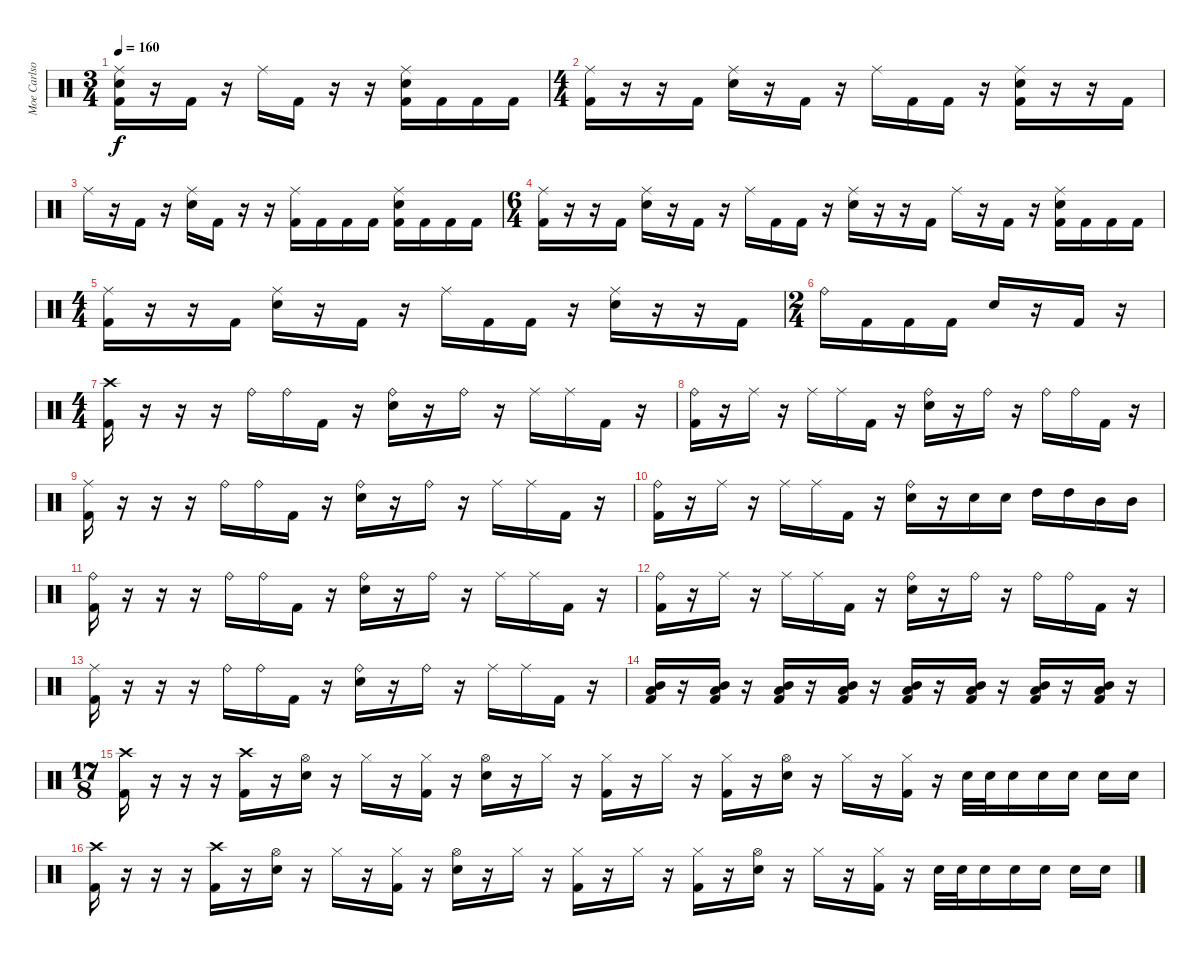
\track ("Moe Carlson" "Moe Carlso") {instrument percussion}
\staff {score}
\articulation defaults
\ts (3 4)
\tempo 160
\clef neutral
\ks c
("Ride (middle)" "Electric Snare (hit)" "Kick (hit) 2").16{dy f} r.16 "Kick (hit) 2".16 r.16 "Ride (middle)".16 "Kick (hit) 2".16 r.16 r.16 ("Ride (middle)" "Electric Snare (hit)" "Kick (hit) 2").16 "Kick (hit) 2".16 "Kick (hit) 2".16 "Kick (hit) 2".16 |
\ts (4 4)
("Ride (middle)" "Kick (hit) 2").16 r.16 r.16 "Kick (hit) 2".16 ("Ride (middle)" "Electric Snare (hit)").16 r.16 "Kick (hit) 2".16 r.16 "Ride (middle)".16 "Kick (hit) 2".16 "Kick (hit) 2".16 r.16 ("Ride (middle)" "Electric Snare (hit)" "Kick (hit) 2").16 r.16 r.16 "Kick (hit) 2".16 |
"Ride (middle)".16 r.16 "Kick (hit) 2".16 r.16 ("Ride (middle)" "Electric Snare (hit)").16 "Kick (hit) 2".16 r.16 r.16 ("Ride (middle)" "Kick (hit) 2").16 "Kick (hit) 2".16 "Kick (hit) 2".16 "Kick (hit) 2".16 ("Ride (middle)" "Electric Snare (hit)" "Kick (hit) 2").16 "Kick (hit) 2".16 "Kick (hit) 2".16 "Kick (hit) 2".16 |
\ts (6 4)
("Ride (middle)" "Kick (hit) 2").16 r.16 r.16 "Kick (hit) 2".16 ("Ride (middle)" "Electric Snare (hit)").16 r.16 "Kick (hit) 2".16 r.16 "Ride (middle)".16 "Kick (hit) 2".16 "Kick (hit) 2".16 r.16 ("Ride (middle)" "Electric Snare (hit)").16 r.16 r.16 "Kick (hit) 2".16 "Ride (middle)".16 r.16 "Kick (hit) 2".16 r.16 ("Ride (middle)" "Electric Snare (hit)" "Kick (hit) 2").16 "Kick (hit) 2".16 "Kick (hit) 2".16 "Kick (hit) 2".16 |
\ts (4 4)
("Ride (middle)" "Kick (hit) 2").16 r.16 r.16 "Kick (hit) 2".16 ("Ride (middle)" "Electric Snare (hit)").16 r.16 "Kick (hit) 2".16 r.16 "Ride (middle)".16 "Kick (hit) 2".16 "Kick (hit) 2".16 r.16 ("Ride (middle)" "Electric Snare (hit)").16 r.16 r.16 "Kick (hit) 2".16 |
\ts (2 4)
"Ride (bell)".16 "Kick (hit) 2".16 "Kick (hit) 2".16 "Kick (hit) 2".16 "Electric Snare (hit)".16 r.16 "Kick (hit) 2".16 r.16 |
\ts (4 4)
("Crash high (hit)" "Kick (hit) 2").16 r.16 r.16 r.16 "Ride (bell)".16 "Ride (bell)".16 "Kick (hit) 2".16 r.16 ("Ride (bell)" "Electric Snare (hit)").16 r.16 "Ride (bell)".16 r.16 "Ride (middle)".16 "Ride (middle)".16 "Kick (hit) 2".16 r.16 |
("Ride (bell)" "Kick (hit) 2").16 r.16 "Ride (middle)".16 r.16 "Ride (middle)".16 "Ride (middle)".16 "Kick (hit) 2".16 r.16 ("Ride (bell)" "Electric Snare (hit)").16 r.16 "Ride (bell)".16 r.16 "Ride (bell)".16 "Ride (bell)".16 "Kick (hit) 2".16 r.16 |
("Ride (middle)" "Kick (hit) 2").16 r.16 r.16 r.16 "Ride (bell)".16 "Ride (bell)".16 "Kick (hit) 2".16 r.16 ("Ride (bell)" "Electric Snare (hit)").16 r.16 "Ride (bell)".16 r.16 "Ride (middle)".16 "Ride (middle)".16 "Kick (hit) 2".16 r.16 |
("Ride (bell)" "Kick (hit) 2").16 r.16 "Ride (middle)".16 r.16 "Ride (middle)".16 "Ride (middle)".16 "Kick (hit) 2".16 r.16 ("Ride (bell)" "Electric Snare (hit)").16 r.16 "Electric Snare (hit)".16 "Electric Snare (hit)".16 "High Tom (hit)".16 "High Tom (hit)".16 "Mid Tom (hit)".16 "Mid Tom (hit)".16 |
("Ride (bell)" "Kick (hit) 2").16 r.16 r.16 r.16 "Ride (bell)".16 "Ride (bell)".16 "Kick (hit) 2".16 r.16 ("Ride (bell)" "Electric Snare (hit)").16 r.16 "Ride (bell)".16 r.16 "Ride (middle)".16 "Ride (middle)".16 "Kick (hit) 2".16 r.16 |
("Ride (bell)" "Kick (hit) 2").16 r.16 "Ride (middle)".16 r.16 "Ride (middle)".16 "Ride (middle)".16 "Kick (hit) 2".16 r.16 ("Ride (bell)" "Electric Snare (hit)").16 r.16 "Ride (bell)".16 r.16 "Ride (bell)".16 "Ride (bell)".16 "Kick (hit) 2".16 r.16 |
("Ride (middle)" "Kick (hit) 2").16 r.16 r.16 r.16 "Ride (bell)".16 "Ride (bell)".16 "Kick (hit) 2".16 r.16 ("Ride (bell)" "Electric Snare (hit)").16 r.16 "Ride (bell)".16 r.16 "Ride (middle)".16 "Ride (middle)".16 "Kick (hit) 2".16 r.16 |
("Mid Tom (hit)" "Low Tom (hit)" "Kick (hit) 2").16 r.16 ("Mid Tom (hit)" "Low Tom (hit)" "Kick (hit) 2").16 r.16 ("Mid Tom (hit)" "Low Tom (hit)" "Kick (hit) 2").16 r.16 ("Mid Tom (hit)" "Low Tom (hit)" "Kick (hit) 2").16 r.16 ("Mid Tom (hit)" "Low Tom (hit)" "Kick (hit) 2").16 r.16 ("Mid Tom (hit)" "Low Tom (hit)" "Kick (hit) 2").16 r.16 ("Mid Tom (hit)" "Low Tom (hit)" "Kick (hit) 2").16 r.16 ("Mid Tom (hit)" "Low Tom (hit)" "Kick (hit) 2").16 r.16 |
\ts (17 8)
("Crash high (hit)" "Kick (hit) 2").16 r.16 r.16 r.16 ("Crash high (hit)" "Kick (hit) 2").16 r.16 ("Hi-Hat (open)" "Electric Snare (hit)").16 r.16 "Hi-Hat (closed)".16 r.16 ("Hi-Hat (closed)" "Kick (hit) 2").16 r.16 ("Hi-Hat (open)" "Electric Snare (hit)").16 r.16 "Hi-Hat (closed)".16 r.16 ("Hi-Hat (closed)" "Kick (hit) 2").16 r.16 "Hi-Hat (closed)".16 r.16 ("Hi-Hat (closed)" "Kick (hit) 2").16 r.16 ("Hi-Hat (open)" "Electric Snare (hit)").16 r.16 "Hi-Hat (closed)".16 r.16 ("Hi-Hat (closed)" "Kick (hit) 2").16 r.16 "Electric Snare (hit)".32 "Electric Snare (hit)".32 "Electric Snare (hit)".16 "Electric Snare (hit)".16 "Electric Snare (hit)".16 "Electric Snare (hit)".16 "Electric Snare (hit)".16 |
("Crash high (hit)" "Kick (hit) 2").16 r.16 r.16 r.16 ("Crash high (hit)" "Kick (hit) 2").16 r.16 ("Hi-Hat (open)" "Electric Snare (hit)").16 r.16 "Hi-Hat (closed)".16 r.16 ("Hi-Hat (closed)" "Kick (hit) 2").16 r.16 ("Hi-Hat (open)" "Electric Snare (hit)").16 r.16 "Hi-Hat (closed)".16 r.16 ("Hi-Hat (closed)" "Kick (hit) 2").16 r.16 "Hi-Hat (closed)".16 r.16 ("Hi-Hat (closed)" "Kick (hit) 2").16 r.16 ("Hi-Hat (open)" "Electric Snare (hit)").16 r.16 "Hi-Hat (closed)".16 r.16 ("Hi-Hat (closed)" "Kick (hit) 2").16 r.16 "Electric Snare (hit)".32 "Electric Snare (hit)".32 "Electric Snare (hit)".16 "Electric Snare (hit)".16 "Electric Snare (hit)".16 "Electric Snare (hit)".16 "Electric Snare (hit)".16
